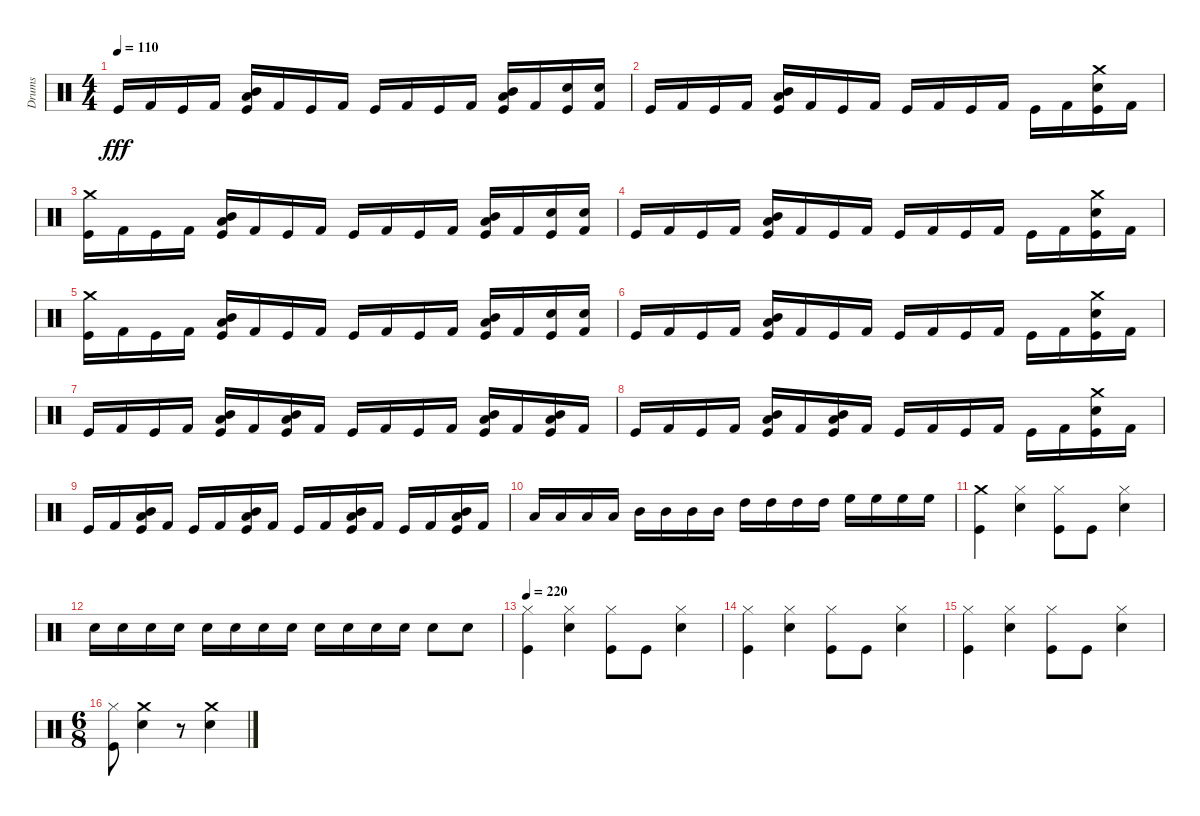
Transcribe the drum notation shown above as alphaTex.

\track ("Drums" "Drums") {instrument percussion}
\staff {score}
\articulation defaults
\ts (4 4)
\tempo 110
\clef neutral
\ks c "Kick (hit)".16{dy fff} "Kick (hit) 2".16 "Kick (hit)".16 "Kick (hit) 2".16
("Kick (hit)" "Low Tom (hit)" "Mid Tom (hit)").16 "Kick (hit) 2".16 "Kick (hit)".16 "Kick (hit) 2".16 "Kick (hit)".16 "Kick (hit) 2".16 "Kick (hit)".16 "Kick (hit) 2".16 ("Kick (hit)" "Low Tom (hit)" "Mid Tom (hit)").16 "Kick (hit) 2".16 ("Kick (hit)" "Snare (hit) 2").16 ("Snare (hit) 2" "Kick (hit) 2").16 |
"Kick (hit)".16 "Kick (hit) 2".16 "Kick (hit)".16 "Kick (hit) 2".16 ("Low Tom (hit)" "Kick (hit)" "Mid Tom (hit)").16 "Kick (hit) 2".16 "Kick (hit)".16 "Kick (hit) 2".16 "Kick (hit)".16 "Kick (hit) 2".16 "Kick (hit)".16 "Kick (hit) 2".16 "Kick (hit)".16 "Kick (hit) 2".16 ("Snare (hit) 2" "Kick (hit)" "Crash medium (hit)").16 "Kick (hit) 2".16 |
("Kick (hit)" "Crash medium (hit)").16 "Kick (hit) 2".16 "Kick (hit)".16 "Kick (hit) 2".16 ("Mid Tom (hit)" "Kick (hit)" "Low Tom (hit)").16 "Kick (hit) 2".16 "Kick (hit)".16 "Kick (hit) 2".16 "Kick (hit)".16 "Kick (hit) 2".16 "Kick (hit)".16 "Kick (hit) 2".16 ("Kick (hit)" "Low Tom (hit)" "Mid Tom (hit)").16 "Kick (hit) 2".16 ("Snare (hit) 2" "Kick (hit)").16 ("Kick (hit) 2" "Snare (hit) 2").16 |
"Kick (hit)".16 "Kick (hit) 2".16 "Kick (hit)".16 "Kick (hit) 2".16 ("Low Tom (hit)" "Kick (hit)" "Mid Tom (hit)").16 "Kick (hit) 2".16 "Kick (hit)".16 "Kick (hit) 2".16 "Kick (hit)".16 "Kick (hit) 2".16 "Kick (hit)".16 "Kick (hit) 2".16 "Kick (hit)".16 "Kick (hit) 2".16 ("Snare (hit) 2" "Kick (hit)" "Crash medium (hit)").16 "Kick (hit) 2".16 |
("Crash medium (hit)" "Kick (hit)").16 "Kick (hit) 2".16 "Kick (hit)".16 "Kick (hit) 2".16 ("Mid Tom (hit)" "Kick (hit)" "Low Tom (hit)").16 "Kick (hit) 2".16 "Kick (hit)".16 "Kick (hit) 2".16 "Kick (hit)".16 "Kick (hit) 2".16 "Kick (hit)".16 "Kick (hit) 2".16 ("Mid Tom (hit)" "Kick (hit)" "Low Tom (hit)").16 "Kick (hit) 2".16 ("Kick (hit)" "Snare (hit) 2").16 ("Kick (hit) 2" "Snare (hit) 2").16 |
"Kick (hit)".16 "Kick (hit) 2".16 "Kick (hit)".16 "Kick (hit) 2".16 ("Kick (hit)" "Mid Tom (hit)" "Low Tom (hit)").16 "Kick (hit) 2".16 "Kick (hit)".16 "Kick (hit) 2".16 "Kick (hit)".16 "Kick (hit) 2".16 "Kick (hit)".16 "Kick (hit) 2".16 "Kick (hit)".16 "Kick (hit) 2".16 ("Snare (hit) 2" "Kick (hit)" "Crash medium (hit)").16 "Kick (hit) 2".16 |
"Kick (hit)".16 "Kick (hit) 2".16 "Kick (hit)".16 "Kick (hit) 2".16 ("Mid Tom (hit)" "Low Tom (hit)" "Kick (hit)").16 "Kick (hit) 2".16 ("Kick (hit)" "Mid Tom (hit)" "Low Tom (hit)").16 "Kick (hit) 2".16 "Kick (hit)".16 "Kick (hit) 2".16 "Kick (hit)".16 "Kick (hit) 2".16 ("Kick (hit)" "Mid Tom (hit)" "Low Tom (hit)").16 "Kick (hit) 2".16 ("Low Tom (hit)" "Mid Tom (hit)" "Kick (hit)").16 "Kick (hit) 2".16 |
"Kick (hit)".16 "Kick (hit) 2".16 "Kick (hit)".16 "Kick (hit) 2".16 ("Kick (hit)" "Mid Tom (hit)" "Low Tom (hit)").16 "Kick (hit) 2".16 ("Kick (hit)" "Low Tom (hit)" "Mid Tom (hit)").16 "Kick (hit) 2".16 "Kick (hit)".16 "Kick (hit) 2".16 "Kick (hit)".16 "Kick (hit) 2".16 "Kick (hit)".16 "Kick (hit) 2".16 ("Kick (hit)" "Crash medium (hit)" "Snare (hit) 2").16 "Kick (hit) 2".16 |
"Kick (hit)".16 "Kick (hit) 2".16 ("Kick (hit)" "Mid Tom (hit)" "Low Tom (hit)").16 "Kick (hit) 2".16 "Kick (hit)".16 "Kick (hit) 2".16 ("Kick (hit)" "Low Tom (hit)" "Mid Tom (hit)").16 "Kick (hit) 2".16 "Kick (hit)".16 "Kick (hit) 2".16 ("Low Tom (hit)" "Mid Tom (hit)" "Kick (hit)").16 "Kick (hit) 2".16 "Kick (hit)".16 "Kick (hit) 2".16 ("Mid Tom (hit)" "Low Tom (hit)" "Kick (hit)").16 "Kick (hit) 2".16 |
"Low Tom (hit)".16 "Low Tom (hit)".16 "Low Tom (hit)".16 "Low Tom (hit)".16 "Mid Tom (hit)".16 "Mid Tom (hit)".16 "Mid Tom (hit)".16 "Mid Tom (hit)".16 "High Tom (hit)".16 "High Tom (hit)".16 "High Tom (hit)".16 "High Tom (hit)".16 "High Floor Tom (hit)".16 "High Floor Tom (hit)".16 "High Floor Tom (hit)".16 "High Floor Tom (hit)".16 |
("Crash medium (hit)" "Kick (hit)").4 ("Snare (hit) 2" "Hi-Hat (closed)").4 ("Kick (hit)" "Hi-Hat (closed)").8 "Kick (hit)".8 ("Snare (hit) 2" "Hi-Hat (closed)").4 |
"Snare (hit) 2".16 "Snare (hit) 2".16 "Snare (hit) 2".16 "Snare (hit) 2".16 "Snare (hit) 2".16 "Snare (hit) 2".16 "Snare (hit) 2".16 "Snare (hit) 2".16 "Snare (hit) 2".16 "Snare (hit) 2".16 "Snare (hit) 2".16 "Snare (hit) 2".16 "Snare (hit) 2".8 "Snare (hit) 2".8 |
\tempo 220
("Kick (hit)" "Hi-Hat (closed)").4 ("Hi-Hat (closed)" "Snare (hit) 2").4 ("Kick (hit)" "Hi-Hat (closed)").8 "Kick (hit)".8 ("Snare (hit) 2" "Hi-Hat (closed)").4 |
("Kick (hit)" "Hi-Hat (closed)").4 ("Snare (hit) 2" "Hi-Hat (closed)").4 ("Kick (hit)" "Hi-Hat (closed)").8 "Kick (hit)".8 ("Hi-Hat (closed)" "Snare (hit) 2").4 |
("Kick (hit)" "Hi-Hat (closed)").4 ("Snare (hit) 2" "Hi-Hat (closed)").4 ("Kick (hit)" "Hi-Hat (closed)").8 "Kick (hit)".8 ("Snare (hit) 2" "Hi-Hat (closed)").4 |
\ts (6 8)
("Hi-Hat (closed)" "Kick (hit)").8 ("Snare (hit) 2" "Crash medium (hit)").4 r.8 ("Snare (hit) 2" "Crash medium (hit)").4
